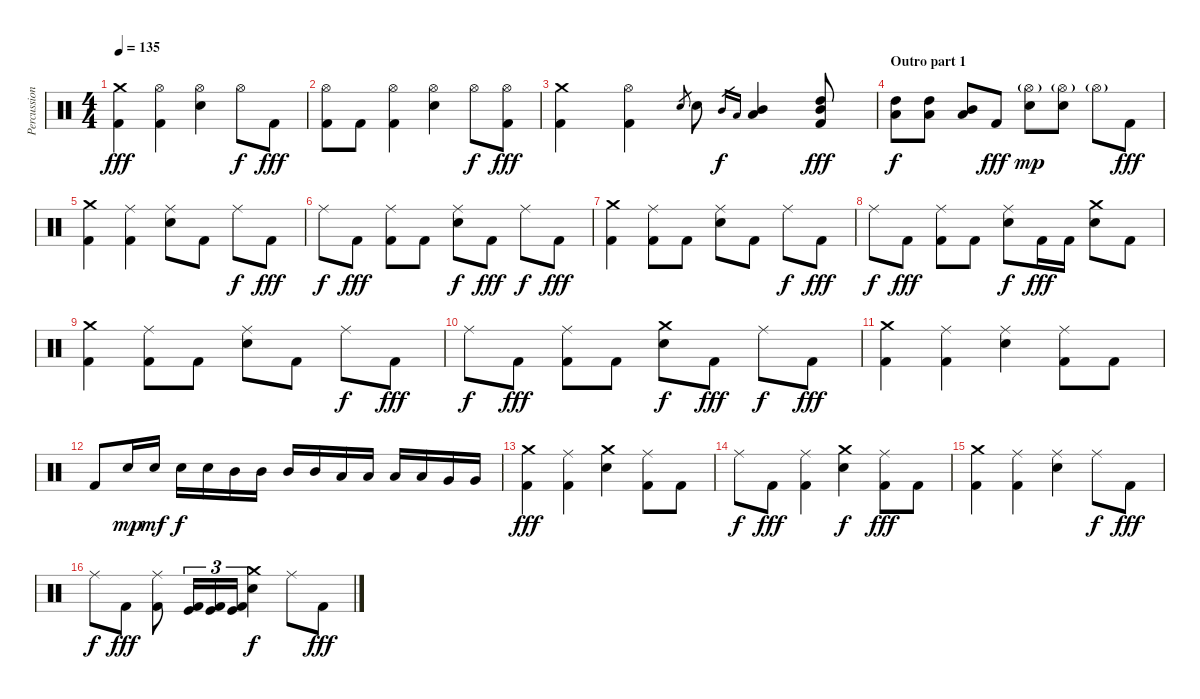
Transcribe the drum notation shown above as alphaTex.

\track ("Percussion" "Percussion") {instrument percussion}
\staff {score}
\articulation defaults
\ts (4 4)
\tempo 135
\clef neutral
\ks c
("Crash medium (hit)" "Kick (hit) 2").4{dy fff} ("Hi-Hat (open)" "Kick (hit) 2").4 ("Hi-Hat (open)" "Electric Snare (hit)").4 "Hi-Hat (open)".8{dy f} "Kick (hit) 2".8{dy fff} |
("Hi-Hat (open)" "Kick (hit) 2").8 "Kick (hit) 2".8 ("Hi-Hat (open)" "Kick (hit) 2").4 ("Hi-Hat (open)" "Electric Snare (hit)").4 "Hi-Hat (open)".8{dy f} ("Hi-Hat (open)" "Kick (hit) 2").8{dy fff} |
("Crash medium (hit)" "Kick (hit) 2").4 ("Hi-Hat (open)" "Kick (hit) 2").4 "Electric Snare (hit)".8{gr} "Electric Snare (hit)".8 "Mid Tom (hit)".16{gr dy f} "Low Tom (hit)".16{gr} ("Mid Tom (hit)" "Low Tom (hit)").4 ("High Tom (hit)" "Mid Tom (hit)" "Kick (hit) 2").8{dy fff} |
\section ("" "Outro part 1")
("High Tom (hit)" "Low Floor Tom (hit)").8{dy f} ("High Tom (hit)" "Low Floor Tom (hit)").8 ("Mid Tom (hit)" "Low Floor Tom (hit)").8 "Kick (hit) 2".8{dy fff} ("Hi-Hat (open)"{g} "Electric Snare (hit)").8{dy mp} ("Hi-Hat (open)"{g} "Electric Snare (hit)").8 "Hi-Hat (open)"{g}.8 "Kick (hit) 2".8{dy fff} |
("Crash medium (hit)" "Kick (hit) 2").4 ("Ride (middle)" "Kick (hit) 2").4 ("Ride (middle)" "Electric Snare (hit)").8 "Kick (hit) 2".8 "Ride (middle)".8{dy f} "Kick (hit) 2".8{dy fff} |
"Ride (middle)".8{dy f} "Kick (hit) 2".8{dy fff} ("Ride (middle)" "Kick (hit) 2").8 "Kick (hit) 2".8 ("Ride (middle)" "Electric Snare (hit)").8{dy f} "Kick (hit) 2".8{dy fff} "Ride (middle)".8{dy f} "Kick (hit) 2".8{dy fff} |
("Crash medium (hit)" "Kick (hit) 2").4 ("Ride (middle)" "Kick (hit) 2").8 "Kick (hit) 2".8 ("Ride (middle)" "Electric Snare (hit)").8 "Kick (hit) 2".8 "Ride (middle)".8{dy f} "Kick (hit) 2".8{dy fff} |
"Ride (middle)".8{dy f} "Kick (hit) 2".8{dy fff} ("Ride (middle)" "Kick (hit) 2").8 "Kick (hit) 2".8 ("Ride (middle)" "Electric Snare (hit)").8{dy f} "Kick (hit) 2".16{dy fff} "Kick (hit) 2".16 ("Crash medium (hit)" "Electric Snare (hit)").8 "Kick (hit) 2".8 |
("Crash medium (hit)" "Kick (hit) 2").4 ("Ride (middle)" "Kick (hit) 2").8 "Kick (hit) 2".8 ("Ride (middle)" "Electric Snare (hit)").8 "Kick (hit) 2".8 "Ride (middle)".8{dy f} "Kick (hit) 2".8{dy fff} |
"Ride (middle)".8{dy f} "Kick (hit) 2".8{dy fff} ("Ride (middle)" "Kick (hit) 2").8 "Kick (hit) 2".8 ("Crash medium (hit)" "Electric Snare (hit)").8{dy f} "Kick (hit) 2".8{dy fff} "Ride (middle)".8{dy f} "Kick (hit) 2".8{dy fff} |
("Crash medium (hit)" "Kick (hit) 2").4 ("Ride (middle)" "Kick (hit) 2").4 ("Ride (middle)" "Electric Snare (hit)").4 ("Ride (middle)" "Kick (hit) 2").8 "Kick (hit) 2".8 |
"Kick (hit) 2".8 "Electric Snare (hit)".16{dy mp} "Electric Snare (hit)".16{dy mf} "Electric Snare (hit)".16{dy f} "Electric Snare (hit)".16 "Mid Tom (hit)".16 "Mid Tom (hit)".16 "Mid Tom (hit)".16 "Mid Tom (hit)".16 "Low Tom (hit)".16 "Low Tom (hit)".16 "Low Tom (hit)".16 "Low Tom (hit)".16 "Very Low Tom (hit)".16 "Very Low Tom (hit)".16 |
("Crash medium (hit)" "Kick (hit) 2").4{dy fff} ("Ride (middle)" "Kick (hit) 2").4 ("Crash medium (hit)" "Electric Snare (hit)").4 ("Ride (middle)" "Kick (hit) 2").8 "Kick (hit) 2".8 |
"Ride (middle)".8{dy f} "Kick (hit) 2".8{dy fff} ("Ride (middle)" "Kick (hit) 2").4 ("Crash medium (hit)" "Electric Snare (hit)").4{dy f} ("Ride (middle)" "Kick (hit) 2").8{dy fff} "Kick (hit) 2".8 |
("Crash medium (hit)" "Kick (hit) 2").4 ("Ride (middle)" "Kick (hit) 2").4 ("Ride (middle)" "Electric Snare (hit)").4 "Ride (middle)".8{dy f} "Kick (hit) 2".8{dy fff} |
"Ride (middle)".8{dy f} "Kick (hit) 2".8{dy fff} ("Ride (middle)" "Kick (hit) 2").8 ("Kick (hit)" "Kick (hit) 2").16{tu (3 2)} ("Kick (hit)" "Kick (hit) 2").16{tu (3 2)} ("Kick (hit)" "Kick (hit) 2").16{tu (3 2)} ("Crash medium (hit)" "Electric Snare (hit)").4{dy f} "Ride (middle)".8 "Kick (hit) 2".8{dy fff}
